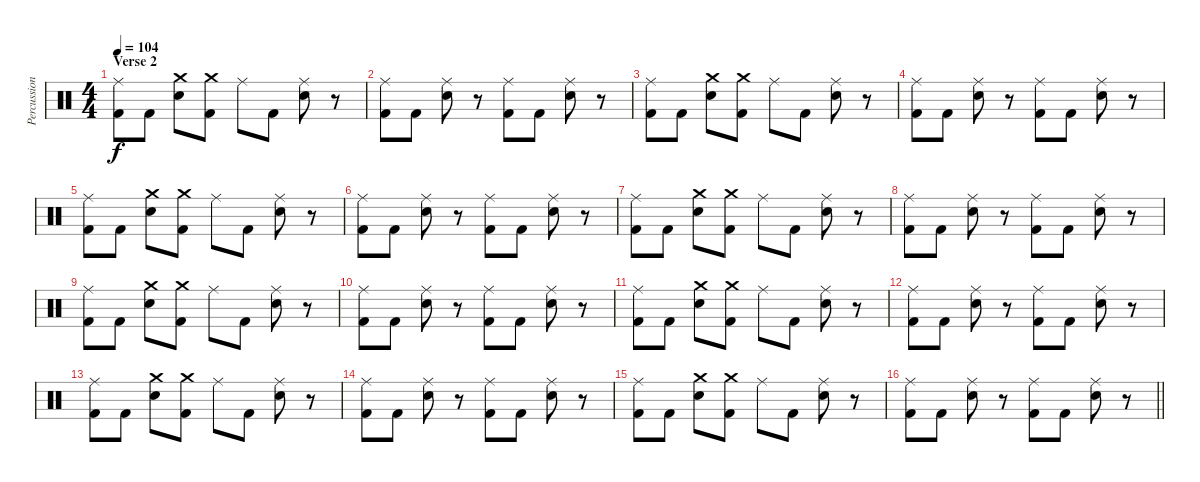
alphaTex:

\track ("Percussioni" "Percussion") {instrument percussion}
\staff {score}
\articulation defaults
\ts (4 4)
\section ("" "Verse 2")
\tempo 104
\clef neutral
\ks c
("Ride (middle)" "Kick (hit) 2").8{dy f} "Kick (hit) 2".8 ("Crash medium (hit)" "Electric Snare (hit)").8 ("Crash medium (hit)" "Kick (hit) 2").8 "Ride (middle)".8 "Kick (hit) 2".8 ("Ride (middle)" "Electric Snare (hit)").8 r.8 |
("Ride (middle)" "Kick (hit) 2").8 "Kick (hit) 2".8 ("Ride (middle)" "Electric Snare (hit)").8 r.8 ("Ride (middle)" "Kick (hit) 2").8 "Kick (hit) 2".8 ("Ride (middle)" "Electric Snare (hit)").8 r.8 |
("Ride (middle)" "Kick (hit) 2").8 "Kick (hit) 2".8 ("Crash medium (hit)" "Electric Snare (hit)").8 ("Crash medium (hit)" "Kick (hit) 2").8 "Ride (middle)".8 "Kick (hit) 2".8 ("Ride (middle)" "Electric Snare (hit)").8 r.8 |
("Ride (middle)" "Kick (hit) 2").8 "Kick (hit) 2".8 ("Ride (middle)" "Electric Snare (hit)").8 r.8 ("Ride (middle)" "Kick (hit) 2").8 "Kick (hit) 2".8 ("Ride (middle)" "Electric Snare (hit)").8 r.8 |
("Ride (middle)" "Kick (hit) 2").8 "Kick (hit) 2".8 ("Crash medium (hit)" "Electric Snare (hit)").8 ("Crash medium (hit)" "Kick (hit) 2").8 "Ride (middle)".8 "Kick (hit) 2".8 ("Ride (middle)" "Electric Snare (hit)").8 r.8 |
("Ride (middle)" "Kick (hit) 2").8 "Kick (hit) 2".8 ("Ride (middle)" "Electric Snare (hit)").8 r.8 ("Ride (middle)" "Kick (hit) 2").8 "Kick (hit) 2".8 ("Ride (middle)" "Electric Snare (hit)").8 r.8 |
("Ride (middle)" "Kick (hit) 2").8 "Kick (hit) 2".8 ("Crash medium (hit)" "Electric Snare (hit)").8 ("Crash medium (hit)" "Kick (hit) 2").8 "Ride (middle)".8 "Kick (hit) 2".8 ("Ride (middle)" "Electric Snare (hit)").8 r.8 |
("Ride (middle)" "Kick (hit) 2").8 "Kick (hit) 2".8 ("Ride (middle)" "Electric Snare (hit)").8 r.8 ("Ride (middle)" "Kick (hit) 2").8 "Kick (hit) 2".8 ("Ride (middle)" "Electric Snare (hit)").8 r.8 |
("Ride (middle)" "Kick (hit) 2").8 "Kick (hit) 2".8 ("Crash medium (hit)" "Electric Snare (hit)").8 ("Crash medium (hit)" "Kick (hit) 2").8 "Ride (middle)".8 "Kick (hit) 2".8 ("Ride (middle)" "Electric Snare (hit)").8 r.8 |
("Ride (middle)" "Kick (hit) 2").8 "Kick (hit) 2".8 ("Ride (middle)" "Electric Snare (hit)").8 r.8 ("Ride (middle)" "Kick (hit) 2").8 "Kick (hit) 2".8 ("Ride (middle)" "Electric Snare (hit)").8 r.8 |
("Ride (middle)" "Kick (hit) 2").8 "Kick (hit) 2".8 ("Crash medium (hit)" "Electric Snare (hit)").8 ("Crash medium (hit)" "Kick (hit) 2").8 "Ride (middle)".8 "Kick (hit) 2".8 ("Ride (middle)" "Electric Snare (hit)").8 r.8 |
("Ride (middle)" "Kick (hit) 2").8 "Kick (hit) 2".8 ("Ride (middle)" "Electric Snare (hit)").8 r.8 ("Ride (middle)" "Kick (hit) 2").8 "Kick (hit) 2".8 ("Ride (middle)" "Electric Snare (hit)").8 r.8 |
("Ride (middle)" "Kick (hit) 2").8 "Kick (hit) 2".8 ("Crash medium (hit)" "Electric Snare (hit)").8 ("Crash medium (hit)" "Kick (hit) 2").8 "Ride (middle)".8 "Kick (hit) 2".8 ("Ride (middle)" "Electric Snare (hit)").8 r.8 |
("Ride (middle)" "Kick (hit) 2").8 "Kick (hit) 2".8 ("Ride (middle)" "Electric Snare (hit)").8 r.8 ("Ride (middle)" "Kick (hit) 2").8 "Kick (hit) 2".8 ("Ride (middle)" "Electric Snare (hit)").8 r.8 |
("Ride (middle)" "Kick (hit) 2").8 "Kick (hit) 2".8 ("Crash medium (hit)" "Electric Snare (hit)").8 ("Crash medium (hit)" "Kick (hit) 2").8 "Ride (middle)".8 "Kick (hit) 2".8 ("Ride (middle)" "Electric Snare (hit)").8 r.8 |
\barLineRight lightlight
("Ride (middle)" "Kick (hit) 2").8 "Kick (hit) 2".8 ("Ride (middle)" "Electric Snare (hit)").8 r.8 ("Ride (middle)" "Kick (hit) 2").8 "Kick (hit) 2".8 ("Ride (middle)" "Electric Snare (hit)").8 r.8
